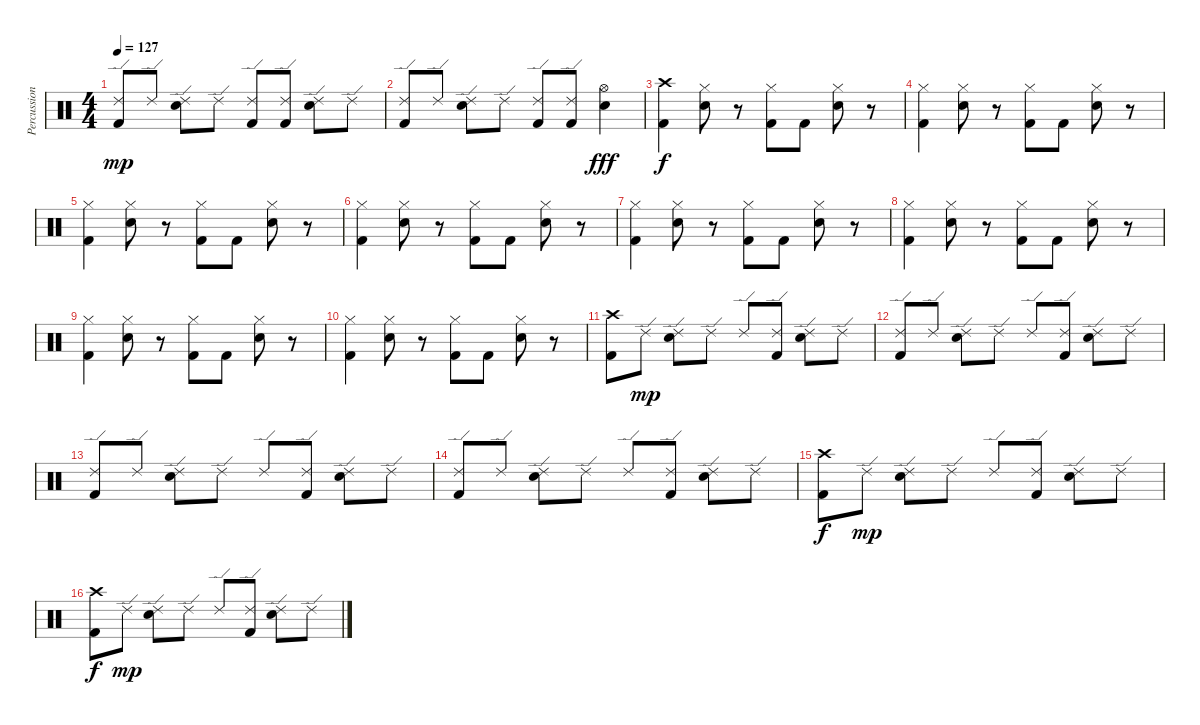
\track ("Percussion" "Percussion") {instrument percussion}
\staff {score}
\articulation defaults
\ts (4 4)
\tempo 127
\clef neutral
\ks c
("Ride (edge) 2" "Kick (hit) 2").8{dy mp} "Ride (edge) 2".8 ("Ride (edge) 2" "Snare (hit) 2").8 "Ride (edge) 2".8 ("Ride (edge) 2" "Kick (hit) 2").8 ("Ride (edge) 2" "Kick (hit) 2").8 ("Ride (edge) 2" "Snare (hit) 2").8 "Ride (edge) 2".8 |
("Ride (edge) 2" "Kick (hit) 2").8 "Ride (edge) 2".8 ("Ride (edge) 2" "Snare (hit) 2").8 "Ride (edge) 2".8 ("Ride (edge) 2" "Kick (hit) 2").8 ("Ride (edge) 2" "Kick (hit) 2").8 ("Hi-Hat (open)" "Electric Snare (hit)").4{dy fff} |
("Crash high (hit)" "Kick (hit) 2").4{dy f} ("Hi-Hat (closed)" "Snare (hit) 2").8 r.8 ("Hi-Hat (closed)" "Kick (hit) 2").8 "Kick (hit) 2".8 ("Hi-Hat (closed)" "Snare (hit) 2").8 r.8 |
("Hi-Hat (closed)" "Kick (hit) 2").4 ("Hi-Hat (closed)" "Snare (hit) 2").8 r.8 ("Hi-Hat (closed)" "Kick (hit) 2").8 "Kick (hit) 2".8 ("Hi-Hat (closed)" "Snare (hit) 2").8 r.8 |
("Hi-Hat (closed)" "Kick (hit) 2").4 ("Hi-Hat (closed)" "Snare (hit) 2").8 r.8 ("Hi-Hat (closed)" "Kick (hit) 2").8 "Kick (hit) 2".8 ("Hi-Hat (closed)" "Snare (hit) 2").8 r.8 |
("Hi-Hat (closed)" "Kick (hit) 2").4 ("Hi-Hat (closed)" "Snare (hit) 2").8 r.8 ("Hi-Hat (closed)" "Kick (hit) 2").8 "Kick (hit) 2".8 ("Hi-Hat (closed)" "Snare (hit) 2").8 r.8 |
("Hi-Hat (closed)" "Kick (hit) 2").4 ("Hi-Hat (closed)" "Snare (hit) 2").8 r.8 ("Hi-Hat (closed)" "Kick (hit) 2").8 "Kick (hit) 2".8 ("Hi-Hat (closed)" "Snare (hit) 2").8 r.8 |
("Hi-Hat (closed)" "Kick (hit) 2").4 ("Hi-Hat (closed)" "Snare (hit) 2").8 r.8 ("Hi-Hat (closed)" "Kick (hit) 2").8 "Kick (hit) 2".8 ("Hi-Hat (closed)" "Snare (hit) 2").8 r.8 |
("Hi-Hat (closed)" "Kick (hit) 2").4 ("Hi-Hat (closed)" "Snare (hit) 2").8 r.8 ("Hi-Hat (closed)" "Kick (hit) 2").8 "Kick (hit) 2".8 ("Hi-Hat (closed)" "Snare (hit) 2").8 r.8 |
("Hi-Hat (closed)" "Kick (hit) 2").4 ("Hi-Hat (closed)" "Snare (hit) 2").8 r.8 ("Hi-Hat (closed)" "Kick (hit) 2").8 "Kick (hit) 2".8 ("Hi-Hat (closed)" "Snare (hit) 2").8 r.8 |
("Crash high (hit)" "Kick (hit) 2").8 "Ride (edge) 2".8{dy mp} ("Ride (edge) 2" "Snare (hit) 2").8 "Ride (edge) 2".8 "Ride (edge) 2".8 ("Ride (edge) 2" "Kick (hit) 2").8 ("Ride (edge) 2" "Snare (hit) 2").8 "Ride (edge) 2".8 |
("Ride (edge) 2" "Kick (hit) 2").8 "Ride (edge) 2".8 ("Ride (edge) 2" "Snare (hit) 2").8 "Ride (edge) 2".8 "Ride (edge) 2".8 ("Ride (edge) 2" "Kick (hit) 2").8 ("Ride (edge) 2" "Snare (hit) 2").8 "Ride (edge) 2".8 |
("Ride (edge) 2" "Kick (hit) 2").8 "Ride (edge) 2".8 ("Ride (edge) 2" "Snare (hit) 2").8 "Ride (edge) 2".8 "Ride (edge) 2".8 ("Ride (edge) 2" "Kick (hit) 2").8 ("Ride (edge) 2" "Snare (hit) 2").8 "Ride (edge) 2".8 |
("Ride (edge) 2" "Kick (hit) 2").8 "Ride (edge) 2".8 ("Ride (edge) 2" "Snare (hit) 2").8 "Ride (edge) 2".8 "Ride (edge) 2".8 ("Ride (edge) 2" "Kick (hit) 2").8 ("Ride (edge) 2" "Snare (hit) 2").8 "Ride (edge) 2".8 |
("Crash high (hit)" "Kick (hit) 2").8{dy f} "Ride (edge) 2".8{dy mp} ("Ride (edge) 2" "Snare (hit) 2").8 "Ride (edge) 2".8 "Ride (edge) 2".8 ("Ride (edge) 2" "Kick (hit) 2").8 ("Ride (edge) 2" "Snare (hit) 2").8 "Ride (edge) 2".8 |
("Crash high (hit)" "Kick (hit) 2").8{dy f} "Ride (edge) 2".8{dy mp} ("Ride (edge) 2" "Snare (hit) 2").8 "Ride (edge) 2".8 "Ride (edge) 2".8 ("Ride (edge) 2" "Kick (hit) 2").8 ("Ride (edge) 2" "Snare (hit) 2").8 "Ride (edge) 2".8
